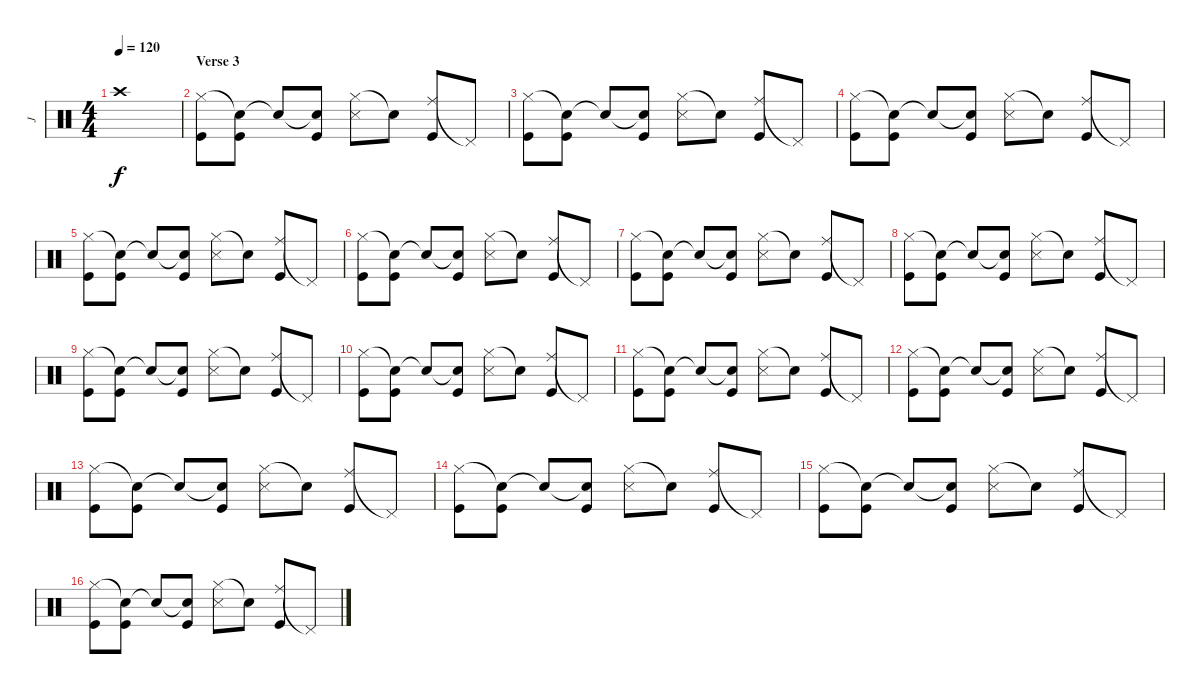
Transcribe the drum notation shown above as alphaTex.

\track ("J" "J") {instrument percussion}
\staff {score}
\articulation defaults
\ts (4 4)
\tempo 120
\clef neutral
\ks c "Crash high (hit)".1{dy f}
|
\section ("" "Verse 3")
("Hi-Hat (closed)" "Kick (hit)").8 ("Snare (hit)"{t} "Kick (hit)").8 "Snare (hit)"{t}.8 ("Snare (hit)"{t} "Kick (hit)").8 ("Hi-Hat (closed)" "Snare (side stick) 3").8 "Snare (hit)"{t}.8 ("Ride (middle)" "Kick (hit)").8 "Pedal Hi-Hat (hit)"{t}.8 |
("Hi-Hat (closed)" "Kick (hit)").8 ("Snare (hit)"{t} "Kick (hit)").8 "Snare (hit)"{t}.8 ("Snare (hit)"{t} "Kick (hit)").8 ("Hi-Hat (closed)" "Snare (side stick) 3").8 "Snare (hit)"{t}.8 ("Ride (middle)" "Kick (hit)").8 "Pedal Hi-Hat (hit)"{t}.8 |
("Hi-Hat (closed)" "Kick (hit)").8 ("Snare (hit)"{t} "Kick (hit)").8 "Snare (hit)"{t}.8 ("Snare (hit)"{t} "Kick (hit)").8 ("Hi-Hat (closed)" "Snare (side stick) 3").8 "Snare (hit)"{t}.8 ("Ride (middle)" "Kick (hit)").8 "Pedal Hi-Hat (hit)"{t}.8 |
("Hi-Hat (closed)" "Kick (hit)").8 ("Snare (hit)"{t} "Kick (hit)").8 "Snare (hit)"{t}.8 ("Snare (hit)"{t} "Kick (hit)").8 ("Hi-Hat (closed)" "Snare (side stick) 3").8 "Snare (hit)"{t}.8 ("Ride (middle)" "Kick (hit)").8 "Pedal Hi-Hat (hit)"{t}.8 |
("Hi-Hat (closed)" "Kick (hit)").8 ("Snare (hit)"{t} "Kick (hit)").8 "Snare (hit)"{t}.8 ("Snare (hit)"{t} "Kick (hit)").8 ("Hi-Hat (closed)" "Snare (side stick) 3").8 "Snare (hit)"{t}.8 ("Ride (middle)" "Kick (hit)").8 "Pedal Hi-Hat (hit)"{t}.8 |
("Hi-Hat (closed)" "Kick (hit)").8 ("Snare (hit)"{t} "Kick (hit)").8 "Snare (hit)"{t}.8 ("Snare (hit)"{t} "Kick (hit)").8 ("Hi-Hat (closed)" "Snare (side stick) 3").8 "Snare (hit)"{t}.8 ("Ride (middle)" "Kick (hit)").8 "Pedal Hi-Hat (hit)"{t}.8 |
("Hi-Hat (closed)" "Kick (hit)").8 ("Snare (hit)"{t} "Kick (hit)").8 "Snare (hit)"{t}.8 ("Snare (hit)"{t} "Kick (hit)").8 ("Hi-Hat (closed)" "Snare (side stick) 3").8 "Snare (hit)"{t}.8 ("Ride (middle)" "Kick (hit)").8 "Pedal Hi-Hat (hit)"{t}.8 |
("Hi-Hat (closed)" "Kick (hit)").8 ("Snare (hit)"{t} "Kick (hit)").8 "Snare (hit)"{t}.8 ("Snare (hit)"{t} "Kick (hit)").8 ("Hi-Hat (closed)" "Snare (side stick) 3").8 "Snare (hit)"{t}.8 ("Ride (middle)" "Kick (hit)").8 "Pedal Hi-Hat (hit)"{t}.8 |
("Hi-Hat (closed)" "Kick (hit)").8 ("Snare (hit)"{t} "Kick (hit)").8 "Snare (hit)"{t}.8 ("Snare (hit)"{t} "Kick (hit)").8 ("Hi-Hat (closed)" "Snare (side stick) 3").8 "Snare (hit)"{t}.8 ("Ride (middle)" "Kick (hit)").8 "Pedal Hi-Hat (hit)"{t}.8 |
("Hi-Hat (closed)" "Kick (hit)").8 ("Snare (hit)"{t} "Kick (hit)").8 "Snare (hit)"{t}.8 ("Snare (hit)"{t} "Kick (hit)").8 ("Hi-Hat (closed)" "Snare (side stick) 3").8 "Snare (hit)"{t}.8 ("Ride (middle)" "Kick (hit)").8 "Pedal Hi-Hat (hit)"{t}.8 |
("Hi-Hat (closed)" "Kick (hit)").8 ("Snare (hit)"{t} "Kick (hit)").8 "Snare (hit)"{t}.8 ("Snare (hit)"{t} "Kick (hit)").8 ("Hi-Hat (closed)" "Snare (side stick) 3").8 "Snare (hit)"{t}.8 ("Ride (middle)" "Kick (hit)").8 "Pedal Hi-Hat (hit)"{t}.8 |
("Hi-Hat (closed)" "Kick (hit)").8 ("Snare (hit)"{t} "Kick (hit)").8 "Snare (hit)"{t}.8 ("Snare (hit)"{t} "Kick (hit)").8 ("Hi-Hat (closed)" "Snare (side stick) 3").8 "Snare (hit)"{t}.8 ("Ride (middle)" "Kick (hit)").8 "Pedal Hi-Hat (hit)"{t}.8 |
("Hi-Hat (closed)" "Kick (hit)").8 ("Snare (hit)"{t} "Kick (hit)").8 "Snare (hit)"{t}.8 ("Snare (hit)"{t} "Kick (hit)").8 ("Hi-Hat (closed)" "Snare (side stick) 3").8 "Snare (hit)"{t}.8 ("Ride (middle)" "Kick (hit)").8 "Pedal Hi-Hat (hit)"{t}.8 |
("Hi-Hat (closed)" "Kick (hit)").8 ("Snare (hit)"{t} "Kick (hit)").8 "Snare (hit)"{t}.8 ("Snare (hit)"{t} "Kick (hit)").8 ("Hi-Hat (closed)" "Snare (side stick) 3").8 "Snare (hit)"{t}.8 ("Ride (middle)" "Kick (hit)").8 "Pedal Hi-Hat (hit)"{t}.8 |
("Hi-Hat (closed)" "Kick (hit)").8 ("Snare (hit)"{t} "Kick (hit)").8 "Snare (hit)"{t}.8 ("Snare (hit)"{t} "Kick (hit)").8 ("Hi-Hat (closed)" "Snare (side stick) 3").8 "Snare (hit)"{t}.8 ("Ride (middle)" "Kick (hit)").8 "Pedal Hi-Hat (hit)"{t}.8
